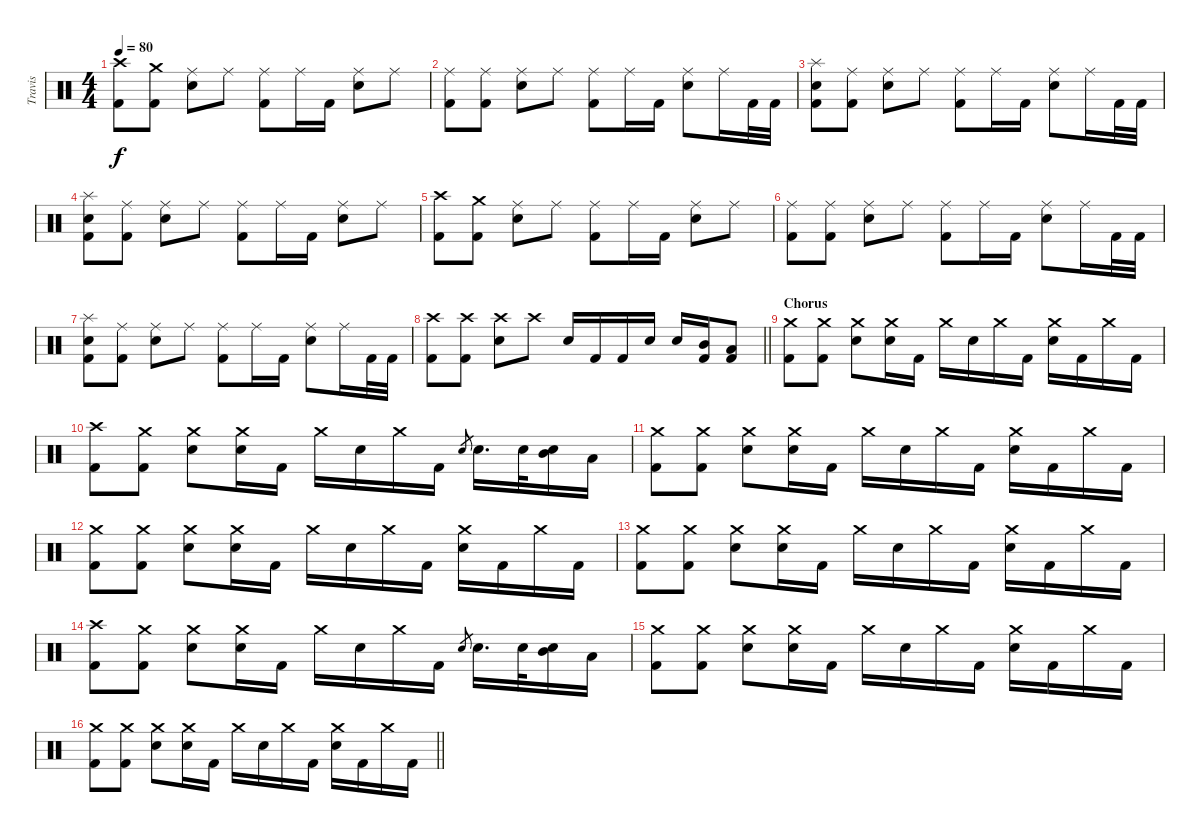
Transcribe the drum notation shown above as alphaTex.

\track ("Travis" "Travis") {instrument percussion}
\staff {score}
\articulation defaults
\ts (4 4)
\tempo 80
\clef neutral
\ks c
("Crash high (hit)" "Kick (hit) 2").8{dy f} ("Crash medium (hit)" "Kick (hit) 2").8 ("Ride (middle)" "Snare (hit) 2").8 "Ride (middle)".8 ("Ride (middle)" "Kick (hit) 2").8 "Ride (middle)".16 "Kick (hit) 2".16 ("Ride (middle)" "Electric Snare (hit)").8 "Ride (middle)".8 |
("Ride (middle)" "Kick (hit) 2").8 ("Ride (middle)" "Kick (hit) 2").8 ("Ride (middle)" "Snare (hit) 2").8 "Ride (middle)".8 ("Ride (middle)" "Kick (hit) 2").8 "Ride (middle)".16 "Kick (hit) 2".16 ("Ride (middle)" "Electric Snare (hit)").8 "Ride (middle)".16 "Kick (hit) 2".32 "Kick (hit) 2".32 |
("Splash (hit)" "Electric Snare (hit)" "Kick (hit) 2").8 ("Ride (middle)" "Kick (hit) 2").8 ("Ride (middle)" "Snare (hit) 2").8 "Ride (middle)".8 ("Ride (middle)" "Kick (hit) 2").8 "Ride (middle)".16 "Kick (hit) 2".16 ("Ride (middle)" "Electric Snare (hit)").8 "Ride (middle)".16 "Kick (hit) 2".32 "Kick (hit) 2".32 |
("Splash (hit)" "Electric Snare (hit)" "Kick (hit) 2").8 ("Ride (middle)" "Kick (hit) 2").8 ("Ride (middle)" "Snare (hit) 2").8 "Ride (middle)".8 ("Ride (middle)" "Kick (hit) 2").8 "Ride (middle)".16 "Kick (hit) 2".16 ("Ride (middle)" "Electric Snare (hit)").8 "Ride (middle)".8 |
("Crash high (hit)" "Kick (hit) 2").8 ("Crash medium (hit)" "Kick (hit) 2").8 ("Ride (middle)" "Snare (hit) 2").8 "Ride (middle)".8 ("Ride (middle)" "Kick (hit) 2").8 "Ride (middle)".16 "Kick (hit) 2".16 ("Ride (middle)" "Electric Snare (hit)").8 "Ride (middle)".8 |
("Ride (middle)" "Kick (hit) 2").8 ("Ride (middle)" "Kick (hit) 2").8 ("Ride (middle)" "Snare (hit) 2").8 "Ride (middle)".8 ("Ride (middle)" "Kick (hit) 2").8 "Ride (middle)".16 "Kick (hit) 2".16 ("Ride (middle)" "Electric Snare (hit)").8 "Ride (middle)".16 "Kick (hit) 2".32 "Kick (hit) 2".32 |
("Splash (hit)" "Electric Snare (hit)" "Kick (hit) 2").8 ("Ride (middle)" "Kick (hit) 2").8 ("Ride (middle)" "Snare (hit) 2").8 "Ride (middle)".8 ("Ride (middle)" "Kick (hit) 2").8 "Ride (middle)".16 "Kick (hit) 2".16 ("Ride (middle)" "Electric Snare (hit)").8 "Ride (middle)".16 "Kick (hit) 2".32 "Kick (hit) 2".32 |
\barLineRight lightlight
("Crash high (hit)" "Kick (hit) 2").8 ("Crash high (hit)" "Kick (hit) 2").8 ("Crash high (hit)" "Snare (hit) 2").8 "Crash high (hit)".8 "Electric Snare (hit)".16 "Kick (hit) 2".16 "Kick (hit) 2".16 "Electric Snare (hit)".16 "Electric Snare (hit)".16 ("Mid Tom (hit)" "Kick (hit) 2").16 ("Low Tom (hit)" "Kick (hit) 2").8 |
\section ("" "Chorus")
("Crash medium (hit)" "Kick (hit) 2").8 ("Crash medium (hit)" "Kick (hit) 2").8 ("Crash medium (hit)" "Electric Snare (hit)").8 ("Crash medium (hit)" "Electric Snare (hit)").16 "Kick (hit) 2".16 "Crash medium (hit)".16 "Electric Snare (hit)".16 "Crash medium (hit)".16 "Kick (hit) 2".16 ("Crash medium (hit)" "Electric Snare (hit)").16 "Kick (hit) 2".16 "Crash medium (hit)".16 "Kick (hit) 2".16 |
("Crash high (hit)" "Kick (hit) 2").8 ("Crash medium (hit)" "Kick (hit) 2").8 ("Crash medium (hit)" "Electric Snare (hit)").8 ("Crash medium (hit)" "Electric Snare (hit)").16 "Kick (hit) 2".16 "Crash medium (hit)".16 "Electric Snare (hit)".16 "Crash medium (hit)".16 "Kick (hit) 2".16 "Electric Snare (hit)".8{gr} "Electric Snare (hit)".16{d} "Electric Snare (hit)".32 ("Electric Snare (hit)" "Mid Tom (hit)").16 "Low Tom (hit)".16 |
("Crash medium (hit)" "Kick (hit) 2").8 ("Crash medium (hit)" "Kick (hit) 2").8 ("Crash medium (hit)" "Electric Snare (hit)").8 ("Crash medium (hit)" "Electric Snare (hit)").16 "Kick (hit) 2".16 "Crash medium (hit)".16 "Electric Snare (hit)".16 "Crash medium (hit)".16 "Kick (hit) 2".16 ("Crash medium (hit)" "Electric Snare (hit)").16 "Kick (hit) 2".16 "Crash medium (hit)".16 "Kick (hit) 2".16 |
("Crash medium (hit)" "Kick (hit) 2").8 ("Crash medium (hit)" "Kick (hit) 2").8 ("Crash medium (hit)" "Electric Snare (hit)").8 ("Crash medium (hit)" "Electric Snare (hit)").16 "Kick (hit) 2".16 "Crash medium (hit)".16 "Electric Snare (hit)".16 "Crash medium (hit)".16 "Kick (hit) 2".16 ("Crash medium (hit)" "Electric Snare (hit)").16 "Kick (hit) 2".16 "Crash medium (hit)".16 "Kick (hit) 2".16 |
("Crash medium (hit)" "Kick (hit) 2").8 ("Crash medium (hit)" "Kick (hit) 2").8 ("Crash medium (hit)" "Electric Snare (hit)").8 ("Crash medium (hit)" "Electric Snare (hit)").16 "Kick (hit) 2".16 "Crash medium (hit)".16 "Electric Snare (hit)".16 "Crash medium (hit)".16 "Kick (hit) 2".16 ("Crash medium (hit)" "Electric Snare (hit)").16 "Kick (hit) 2".16 "Crash medium (hit)".16 "Kick (hit) 2".16 |
("Crash high (hit)" "Kick (hit) 2").8 ("Crash medium (hit)" "Kick (hit) 2").8 ("Crash medium (hit)" "Electric Snare (hit)").8 ("Crash medium (hit)" "Electric Snare (hit)").16 "Kick (hit) 2".16 "Crash medium (hit)".16 "Electric Snare (hit)".16 "Crash medium (hit)".16 "Kick (hit) 2".16 "Electric Snare (hit)".8{gr} "Electric Snare (hit)".16{d} "Electric Snare (hit)".32 ("Electric Snare (hit)" "Mid Tom (hit)").16 "Low Tom (hit)".16 |
("Crash medium (hit)" "Kick (hit) 2").8 ("Crash medium (hit)" "Kick (hit) 2").8 ("Crash medium (hit)" "Electric Snare (hit)").8 ("Crash medium (hit)" "Electric Snare (hit)").16 "Kick (hit) 2".16 "Crash medium (hit)".16 "Electric Snare (hit)".16 "Crash medium (hit)".16 "Kick (hit) 2".16 ("Crash medium (hit)" "Electric Snare (hit)").16 "Kick (hit) 2".16 "Crash medium (hit)".16 "Kick (hit) 2".16 |
\barLineRight lightlight
("Crash medium (hit)" "Kick (hit) 2").8 ("Crash medium (hit)" "Kick (hit) 2").8 ("Crash medium (hit)" "Electric Snare (hit)").8 ("Crash medium (hit)" "Electric Snare (hit)").16 "Kick (hit) 2".16 "Crash medium (hit)".16 "Electric Snare (hit)".16 "Crash medium (hit)".16 "Kick (hit) 2".16 ("Crash medium (hit)" "Electric Snare (hit)").16 "Kick (hit) 2".16 "Crash medium (hit)".16 "Kick (hit) 2".16
